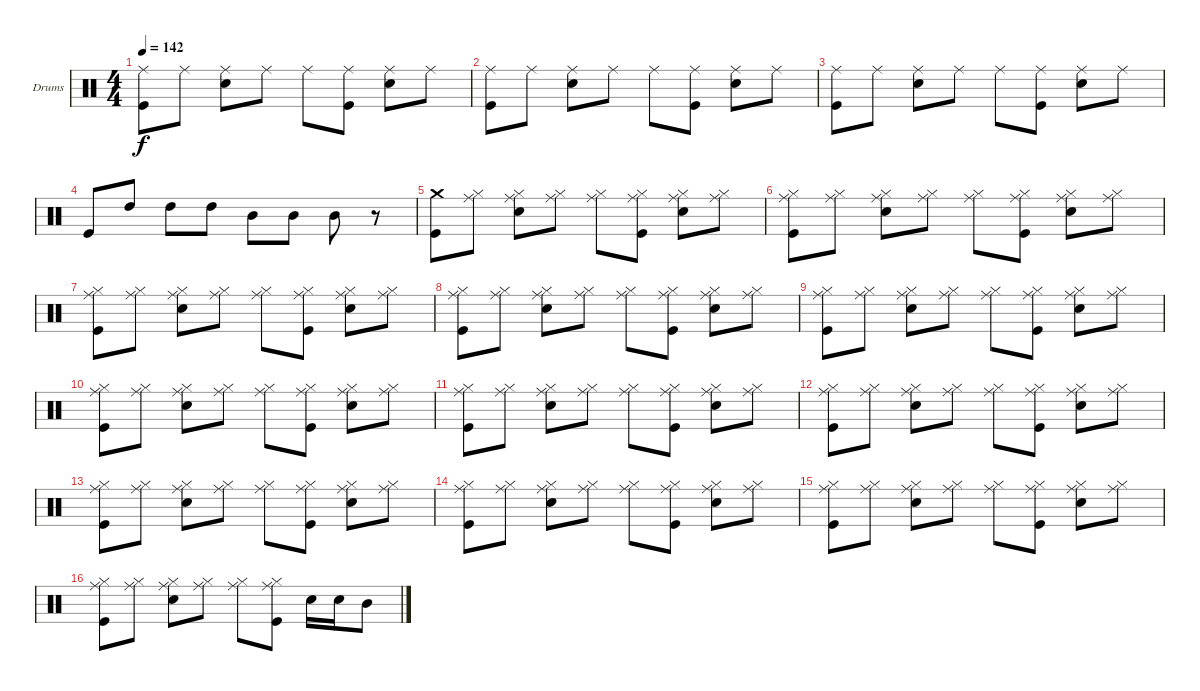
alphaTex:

\bracketExtendMode groupsimilarinstruments
\firstSystemTrackNameOrientation horizontal
\otherSystemsTrackNameOrientation horizontal
\track ("Drumkit" "Drums") {instrument percussion}
\staff {score}
\articulation defaults
\ts (4 4)
\tempo 142
\clef neutral
\ks c
("Ride (middle)" "Kick (hit)").8{dy f} "Ride (middle)".8 ("Ride (middle)" "Snare (hit) 2").8 "Ride (middle)".8 "Ride (middle)".8 ("Ride (middle)" "Kick (hit)").8 ("Ride (middle)" "Snare (hit) 2").8 "Ride (middle)".8 |
("Ride (middle)" "Kick (hit)").8 "Ride (middle)".8 ("Ride (middle)" "Snare (hit) 2").8 "Ride (middle)".8 "Ride (middle)".8 ("Ride (middle)" "Kick (hit)").8 ("Ride (middle)" "Snare (hit) 2").8 "Ride (middle)".8 |
("Ride (middle)" "Kick (hit)").8 "Ride (middle)".8 ("Ride (middle)" "Snare (hit) 2").8 "Ride (middle)".8 "Ride (middle)".8 ("Ride (middle)" "Kick (hit)").8 ("Ride (middle)" "Snare (hit) 2").8 "Ride (middle)".8 |
"Kick (hit)".8 "High Tom (hit)".8 "High Tom (hit)".8 "High Tom (hit)".8 "Mid Tom (hit)".8 "Mid Tom (hit)".8 "Mid Tom (hit)".8 r.8 |
("Kick (hit)" "Crash medium (hit)").8 ("Ride (middle)" "Hi-Hat (closed)").8 ("Ride (middle)" "Snare (hit) 2" "Hi-Hat (closed)").8 ("Ride (middle)" "Hi-Hat (closed)").8 ("Ride (middle)" "Hi-Hat (closed)").8 ("Ride (middle)" "Kick (hit)" "Hi-Hat (closed)").8 ("Ride (middle)" "Snare (hit) 2" "Hi-Hat (closed)").8 ("Ride (middle)" "Hi-Hat (closed)").8 |
("Ride (middle)" "Kick (hit)" "Hi-Hat (closed)").8 ("Ride (middle)" "Hi-Hat (closed)").8 ("Ride (middle)" "Snare (hit) 2" "Hi-Hat (closed)").8 ("Ride (middle)" "Hi-Hat (closed)").8 ("Ride (middle)" "Hi-Hat (closed)").8 ("Ride (middle)" "Kick (hit)" "Hi-Hat (closed)").8 ("Ride (middle)" "Snare (hit) 2" "Hi-Hat (closed)").8 ("Ride (middle)" "Hi-Hat (closed)").8 |
("Ride (middle)" "Kick (hit)" "Hi-Hat (closed)").8 ("Ride (middle)" "Hi-Hat (closed)").8 ("Ride (middle)" "Snare (hit) 2" "Hi-Hat (closed)").8 ("Ride (middle)" "Hi-Hat (closed)").8 ("Ride (middle)" "Hi-Hat (closed)").8 ("Ride (middle)" "Kick (hit)" "Hi-Hat (closed)").8 ("Ride (middle)" "Snare (hit) 2" "Hi-Hat (closed)").8 ("Ride (middle)" "Hi-Hat (closed)").8 |
("Ride (middle)" "Kick (hit)" "Hi-Hat (closed)").8 ("Ride (middle)" "Hi-Hat (closed)").8 ("Ride (middle)" "Snare (hit) 2" "Hi-Hat (closed)").8 ("Ride (middle)" "Hi-Hat (closed)").8 ("Ride (middle)" "Hi-Hat (closed)").8 ("Ride (middle)" "Kick (hit)" "Hi-Hat (closed)").8 ("Ride (middle)" "Snare (hit) 2" "Hi-Hat (closed)").8 ("Ride (middle)" "Hi-Hat (closed)").8 |
("Kick (hit)" "Hi-Hat (closed)" "Ride (middle)").8 ("Ride (middle)" "Hi-Hat (closed)").8 ("Ride (middle)" "Snare (hit) 2" "Hi-Hat (closed)").8 ("Ride (middle)" "Hi-Hat (closed)").8 ("Ride (middle)" "Hi-Hat (closed)").8 ("Ride (middle)" "Kick (hit)" "Hi-Hat (closed)").8 ("Ride (middle)" "Snare (hit) 2" "Hi-Hat (closed)").8 ("Ride (middle)" "Hi-Hat (closed)").8 |
("Ride (middle)" "Kick (hit)" "Hi-Hat (closed)").8 ("Ride (middle)" "Hi-Hat (closed)").8 ("Ride (middle)" "Snare (hit) 2" "Hi-Hat (closed)").8 ("Ride (middle)" "Hi-Hat (closed)").8 ("Ride (middle)" "Hi-Hat (closed)").8 ("Ride (middle)" "Kick (hit)" "Hi-Hat (closed)").8 ("Ride (middle)" "Snare (hit) 2" "Hi-Hat (closed)").8 ("Ride (middle)" "Hi-Hat (closed)").8 |
("Ride (middle)" "Kick (hit)" "Hi-Hat (closed)").8 ("Ride (middle)" "Hi-Hat (closed)").8 ("Ride (middle)" "Snare (hit) 2" "Hi-Hat (closed)").8 ("Ride (middle)" "Hi-Hat (closed)").8 ("Ride (middle)" "Hi-Hat (closed)").8 ("Ride (middle)" "Kick (hit)" "Hi-Hat (closed)").8 ("Ride (middle)" "Snare (hit) 2" "Hi-Hat (closed)").8 ("Ride (middle)" "Hi-Hat (closed)").8 |
("Ride (middle)" "Kick (hit)" "Hi-Hat (closed)").8 ("Ride (middle)" "Hi-Hat (closed)").8 ("Ride (middle)" "Snare (hit) 2" "Hi-Hat (closed)").8 ("Ride (middle)" "Hi-Hat (closed)").8 ("Ride (middle)" "Hi-Hat (closed)").8 ("Ride (middle)" "Kick (hit)" "Hi-Hat (closed)").8 ("Ride (middle)" "Snare (hit) 2" "Hi-Hat (closed)").8 ("Ride (middle)" "Hi-Hat (closed)").8 |
("Ride (middle)" "Kick (hit)" "Hi-Hat (closed)").8 ("Ride (middle)" "Hi-Hat (closed)").8 ("Ride (middle)" "Snare (hit) 2" "Hi-Hat (closed)").8 ("Ride (middle)" "Hi-Hat (closed)").8 ("Ride (middle)" "Hi-Hat (closed)").8 ("Ride (middle)" "Kick (hit)" "Hi-Hat (closed)").8 ("Ride (middle)" "Snare (hit) 2" "Hi-Hat (closed)").8 ("Ride (middle)" "Hi-Hat (closed)").8 |
("Ride (middle)" "Kick (hit)" "Hi-Hat (closed)").8 ("Ride (middle)" "Hi-Hat (closed)").8 ("Ride (middle)" "Snare (hit) 2" "Hi-Hat (closed)").8 ("Ride (middle)" "Hi-Hat (closed)").8 ("Ride (middle)" "Hi-Hat (closed)").8 ("Ride (middle)" "Kick (hit)" "Hi-Hat (closed)").8 ("Ride (middle)" "Snare (hit) 2" "Hi-Hat (closed)").8 ("Ride (middle)" "Hi-Hat (closed)").8 |
("Ride (middle)" "Kick (hit)" "Hi-Hat (closed)").8 ("Ride (middle)" "Hi-Hat (closed)").8 ("Ride (middle)" "Snare (hit) 2" "Hi-Hat (closed)").8 ("Ride (middle)" "Hi-Hat (closed)").8 ("Ride (middle)" "Hi-Hat (closed)").8 ("Ride (middle)" "Kick (hit)" "Hi-Hat (closed)").8 ("Ride (middle)" "Snare (hit) 2" "Hi-Hat (closed)").8 ("Ride (middle)" "Hi-Hat (closed)").8 |
("Kick (hit)" "Hi-Hat (closed)" "Ride (middle)").8 ("Hi-Hat (closed)" "Ride (middle)").8 ("Snare (hit) 2" "Hi-Hat (closed)" "Ride (middle)").8 ("Ride (middle)" "Hi-Hat (closed)").8 ("Ride (middle)" "Hi-Hat (closed)").8 ("Kick (hit)" "Ride (middle)" "Hi-Hat (closed)").8 "Snare (hit) 2".16 "Snare (hit) 2".16 "Mid Tom (hit)".8
